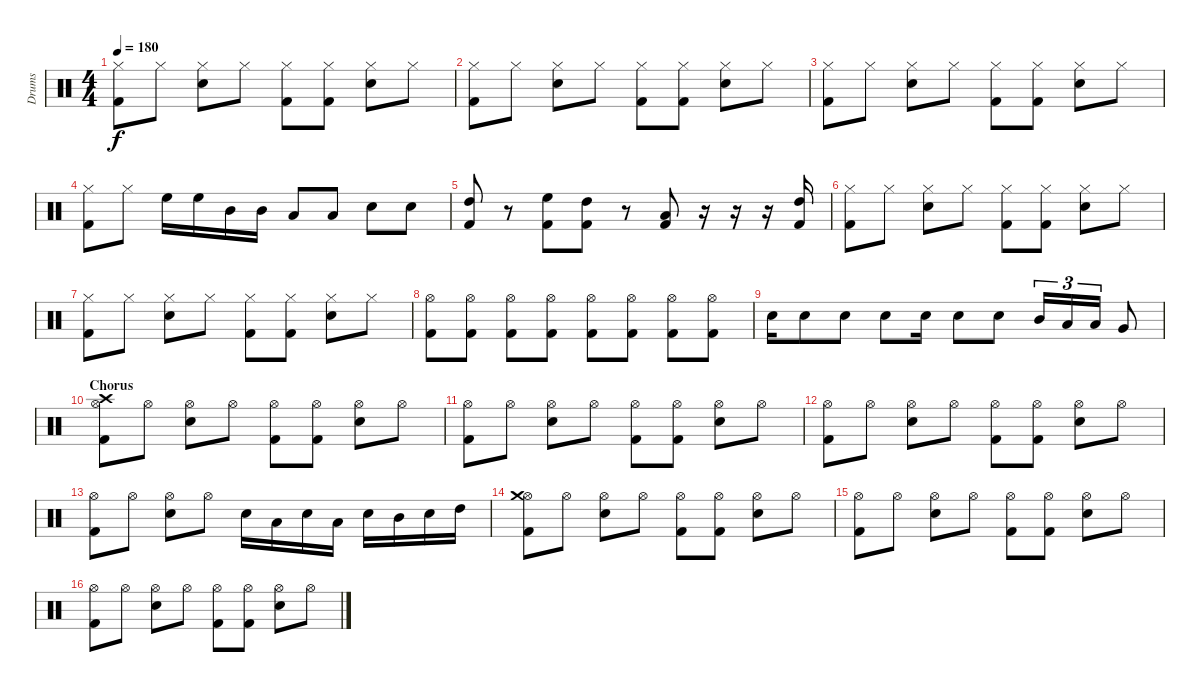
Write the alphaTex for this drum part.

\track ("Drums" "Drums") {instrument percussion}
\staff {score}
\articulation defaults
\ts (4 4)
\tempo 180
\clef neutral
\ks c
("Hi-Hat (closed)" "Kick (hit) 2").8{dy f} "Hi-Hat (closed)".8 ("Hi-Hat (closed)" "Snare (hit) 2").8 "Hi-Hat (closed)".8 ("Hi-Hat (closed)" "Kick (hit) 2").8 ("Hi-Hat (closed)" "Kick (hit) 2").8 ("Hi-Hat (closed)" "Snare (hit) 2").8 "Hi-Hat (closed)".8 |
("Hi-Hat (closed)" "Kick (hit) 2").8 "Hi-Hat (closed)".8 ("Hi-Hat (closed)" "Snare (hit) 2").8 "Hi-Hat (closed)".8 ("Hi-Hat (closed)" "Kick (hit) 2").8 ("Hi-Hat (closed)" "Kick (hit) 2").8 ("Hi-Hat (closed)" "Snare (hit) 2").8 "Hi-Hat (closed)".8 |
("Hi-Hat (closed)" "Kick (hit) 2").8 "Hi-Hat (closed)".8 ("Hi-Hat (closed)" "Snare (hit) 2").8 "Hi-Hat (closed)".8 ("Hi-Hat (closed)" "Kick (hit) 2").8 ("Hi-Hat (closed)" "Kick (hit) 2").8 ("Hi-Hat (closed)" "Snare (hit) 2").8 "Hi-Hat (closed)".8 |
("Hi-Hat (closed)" "Kick (hit) 2").8 "Hi-Hat (closed)".8 "High Floor Tom (hit)".16 "High Floor Tom (hit)".16 "Mid Tom (hit)".16 "Mid Tom (hit)".16 "Low Floor Tom (hit)".8 "Low Floor Tom (hit)".8 "Snare (hit) 2".8 "Snare (hit) 2".8 |
("High Tom (hit)" "Kick (hit) 2").8 r.8 ("High Floor Tom (hit)" "Kick (hit) 2").8 ("High Tom (hit)" "Kick (hit) 2").8 r.8 ("Low Floor Tom (hit)" "Kick (hit) 2").8 r.16 r.16 r.16 ("High Tom (hit)" "Kick (hit) 2").16 |
("Hi-Hat (closed)" "Kick (hit) 2").8 "Hi-Hat (closed)".8 ("Hi-Hat (closed)" "Snare (hit) 2").8 "Hi-Hat (closed)".8 ("Hi-Hat (closed)" "Kick (hit) 2").8 ("Hi-Hat (closed)" "Kick (hit) 2").8 ("Hi-Hat (closed)" "Snare (hit) 2").8 "Hi-Hat (closed)".8 |
("Hi-Hat (closed)" "Kick (hit) 2").8 "Hi-Hat (closed)".8 ("Hi-Hat (closed)" "Snare (hit) 2").8 "Hi-Hat (closed)".8 ("Hi-Hat (closed)" "Kick (hit) 2").8 ("Hi-Hat (closed)" "Kick (hit) 2").8 ("Hi-Hat (closed)" "Snare (hit) 2").8 "Hi-Hat (closed)".8 |
("Hi-Hat (open)" "Kick (hit) 2").8 ("Hi-Hat (open)" "Kick (hit) 2").8 ("Hi-Hat (open)" "Kick (hit) 2").8 ("Hi-Hat (open)" "Kick (hit) 2").8 ("Hi-Hat (open)" "Kick (hit) 2").8 ("Hi-Hat (open)" "Kick (hit) 2").8 ("Hi-Hat (open)" "Kick (hit) 2").8 ("Hi-Hat (open)" "Kick (hit) 2").8 |
"Snare (hit) 2".16 "Snare (hit) 2".8 "Snare (hit) 2".8 "Snare (hit) 2".8 "Snare (hit) 2".16 "Snare (hit) 2".8 "Snare (hit) 2".8 "Mid Tom (hit)".16{tu (3 2)} "Low Tom (hit)".16{tu (3 2)} "Low Tom (hit)".16{tu (3 2)} "Very Low Tom (hit)".8 |
\section ("" "Chorus")
("Hi-Hat (open)" "Crash high (hit)" "Kick (hit) 2").8 "Hi-Hat (open)".8 ("Hi-Hat (open)" "Snare (hit) 2").8 "Hi-Hat (open)".8 ("Hi-Hat (open)" "Kick (hit) 2").8 ("Hi-Hat (open)" "Kick (hit) 2").8 ("Hi-Hat (open)" "Snare (hit) 2").8 "Hi-Hat (open)".8 |
("Hi-Hat (open)" "Kick (hit) 2").8 "Hi-Hat (open)".8 ("Hi-Hat (open)" "Snare (hit) 2").8 "Hi-Hat (open)".8 ("Hi-Hat (open)" "Kick (hit) 2").8 ("Hi-Hat (open)" "Kick (hit) 2").8 ("Hi-Hat (open)" "Snare (hit) 2").8 "Hi-Hat (open)".8 |
("Hi-Hat (open)" "Kick (hit) 2").8 "Hi-Hat (open)".8 ("Hi-Hat (open)" "Snare (hit) 2").8 "Hi-Hat (open)".8 ("Hi-Hat (open)" "Kick (hit) 2").8 ("Hi-Hat (open)" "Kick (hit) 2").8 ("Hi-Hat (open)" "Snare (hit) 2").8 "Hi-Hat (open)".8 |
("Hi-Hat (open)" "Kick (hit) 2").8 "Hi-Hat (open)".8 ("Hi-Hat (open)" "Snare (hit) 2").8 "Hi-Hat (open)".8 "Snare (hit) 2".16 "Low Floor Tom (hit)".16 "Snare (hit) 2".16 "Low Tom (hit)".16 "Snare (hit) 2".16 "Mid Tom (hit)".16 "Snare (hit) 2".16 "High Tom (hit)".16 |
("Hi-Hat (open)" "Crash medium (hit)" "Kick (hit) 2").8 "Hi-Hat (open)".8 ("Hi-Hat (open)" "Snare (hit) 2").8 "Hi-Hat (open)".8 ("Hi-Hat (open)" "Kick (hit) 2").8 ("Hi-Hat (open)" "Kick (hit) 2").8 ("Hi-Hat (open)" "Snare (hit) 2").8 "Hi-Hat (open)".8 |
("Hi-Hat (open)" "Kick (hit) 2").8 "Hi-Hat (open)".8 ("Hi-Hat (open)" "Snare (hit) 2").8 "Hi-Hat (open)".8 ("Hi-Hat (open)" "Kick (hit) 2").8 ("Hi-Hat (open)" "Kick (hit) 2").8 ("Hi-Hat (open)" "Snare (hit) 2").8 "Hi-Hat (open)".8 |
("Hi-Hat (open)" "Kick (hit) 2").8 "Hi-Hat (open)".8 ("Hi-Hat (open)" "Snare (hit) 2").8 "Hi-Hat (open)".8 ("Hi-Hat (open)" "Kick (hit) 2").8 ("Hi-Hat (open)" "Kick (hit) 2").8 ("Hi-Hat (open)" "Snare (hit) 2").8 "Hi-Hat (open)".8
